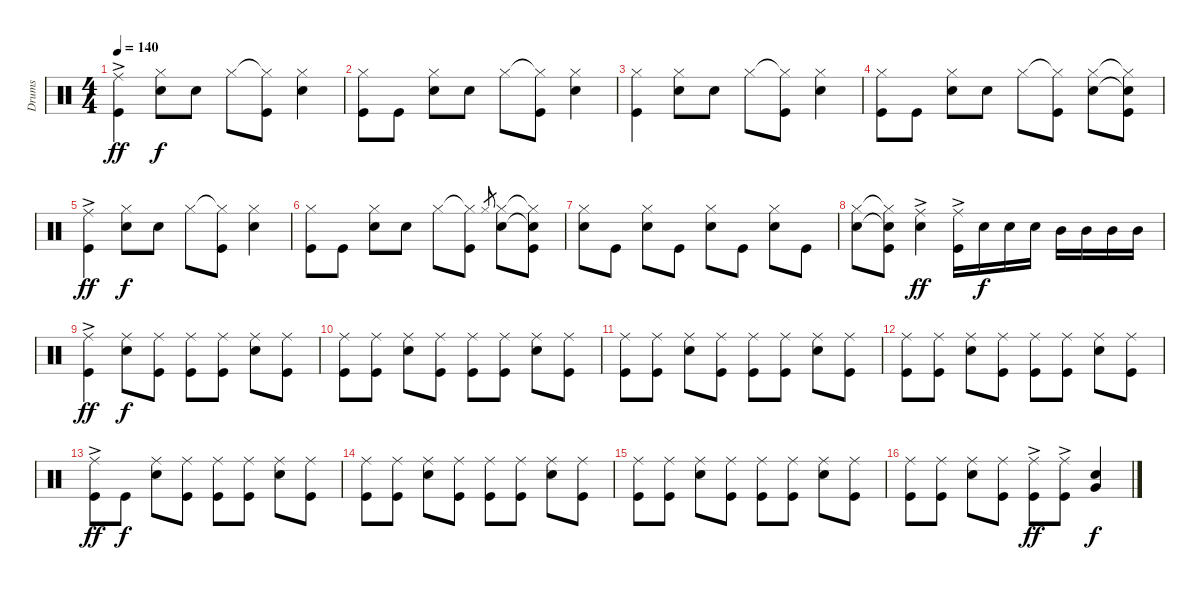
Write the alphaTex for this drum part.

\track ("Drums" "Drums") {instrument percussion}
\staff {score}
\articulation defaults
\ts (4 4)
\tempo 140
\clef neutral
\ks c
("Ride (middle)" "Kick (hit)"{ac}).4{dy ff} ("Hi-Hat (closed)" "Snare (hit) 2").8{dy f} "Snare (hit) 2".8 "Hi-Hat (closed)".8 ("Hi-Hat (closed)"{t} "Kick (hit)").8 ("Hi-Hat (closed)" "Snare (hit) 2").4 |
("Kick (hit)" "Hi-Hat (closed)").8 "Kick (hit)".8 ("Snare (hit) 2" "Hi-Hat (closed)").8 "Snare (hit) 2".8 "Hi-Hat (closed)".8 ("Hi-Hat (closed)"{t} "Kick (hit)").8 ("Snare (hit) 2" "Hi-Hat (closed)").4 |
("Kick (hit)" "Hi-Hat (closed)").4 ("Snare (hit) 2" "Hi-Hat (closed)").8 "Snare (hit) 2".8 "Hi-Hat (closed)".8 ("Hi-Hat (closed)"{t} "Kick (hit)").8 ("Snare (hit) 2" "Hi-Hat (closed)").4 |
("Kick (hit)" "Hi-Hat (closed)").8 "Kick (hit)".8 ("Snare (hit) 2" "Hi-Hat (closed)").8 "Snare (hit) 2".8 "Hi-Hat (closed)".8 ("Hi-Hat (closed)"{t} "Kick (hit)").8 ("Snare (hit) 2" "Hi-Hat (closed)").8 ("Snare (hit) 2"{t} "Hi-Hat (closed)"{t} "Kick (hit)").8 |
("Ride (middle)" "Kick (hit)"{ac}).4{dy ff} ("Hi-Hat (closed)" "Snare (hit) 2").8{dy f} "Snare (hit) 2".8 "Hi-Hat (closed)".8 ("Hi-Hat (closed)"{t} "Kick (hit)").8 ("Hi-Hat (closed)" "Snare (hit) 2").4 |
("Kick (hit)" "Hi-Hat (closed)").8 "Kick (hit)".8 ("Snare (hit) 2" "Hi-Hat (closed)").8 "Snare (hit) 2".8 "Hi-Hat (closed)".8 ("Hi-Hat (closed)"{t} "Kick (hit)").8 "Hi-Hat (closed)".8{gr} ("Snare (hit) 2" "Hi-Hat (closed)").8 ("Snare (hit) 2"{t} "Hi-Hat (closed)"{t} "Kick (hit)").8 |
("Snare (hit) 2" "Hi-Hat (closed)").8 "Kick (hit)".8 ("Snare (hit) 2" "Hi-Hat (closed)").8 "Kick (hit)".8 ("Snare (hit) 2" "Hi-Hat (closed)").8 "Kick (hit)".8 ("Snare (hit) 2" "Hi-Hat (closed)").8 "Kick (hit)".8 |
("Snare (hit) 2" "Hi-Hat (closed)").8 ("Snare (hit) 2"{t} "Hi-Hat (closed)"{t} "Kick (hit)").8 ("Ride (middle)" "Snare (hit) 2"{ac}).4{dy ff} ("Ride (middle)" "Kick (hit)"{ac}).16 "Snare (hit) 2".16{dy f} "Snare (hit) 2".16 "Snare (hit) 2".16 "Mid Tom (hit)".16 "Mid Tom (hit)".16 "Mid Tom (hit)".16 "Mid Tom (hit)".16 |
("Ride (middle)" "Kick (hit)"{ac}).4{dy ff} ("Ride (middle)" "Snare (hit) 2").8{dy f} ("Ride (middle)" "Kick (hit)").8 ("Ride (middle)" "Kick (hit)").8 ("Ride (middle)" "Kick (hit)").8 ("Ride (middle)" "Snare (hit) 2").8 ("Ride (middle)" "Kick (hit)").8 |
("Ride (middle)" "Kick (hit)").8 ("Ride (middle)" "Kick (hit)").8 ("Ride (middle)" "Snare (hit) 2").8 ("Ride (middle)" "Kick (hit)").8 ("Ride (middle)" "Kick (hit)").8 ("Ride (middle)" "Kick (hit)").8 ("Ride (middle)" "Snare (hit) 2").8 ("Ride (middle)" "Kick (hit)").8 |
("Ride (middle)" "Kick (hit)").8 ("Ride (middle)" "Kick (hit)").8 ("Ride (middle)" "Snare (hit) 2").8 ("Ride (middle)" "Kick (hit)").8 ("Ride (middle)" "Kick (hit)").8 ("Ride (middle)" "Kick (hit)").8 ("Ride (middle)" "Snare (hit) 2").8 ("Ride (middle)" "Kick (hit)").8 |
("Ride (middle)" "Kick (hit)").8 ("Ride (middle)" "Kick (hit)").8 ("Ride (middle)" "Snare (hit) 2").8 ("Ride (middle)" "Kick (hit)").8 ("Ride (middle)" "Kick (hit)").8 ("Ride (middle)" "Kick (hit)").8 ("Ride (middle)" "Snare (hit) 2").8 ("Ride (middle)" "Kick (hit)").8 |
("Ride (middle)" "Kick (hit)"{ac}).8{dy ff} "Kick (hit)".8{dy f} ("Ride (middle)" "Snare (hit) 2").8 ("Ride (middle)" "Kick (hit)").8 ("Ride (middle)" "Kick (hit)").8 ("Ride (middle)" "Kick (hit)").8 ("Ride (middle)" "Snare (hit) 2").8 ("Ride (middle)" "Kick (hit)").8 |
("Ride (middle)" "Kick (hit)").8 ("Ride (middle)" "Kick (hit)").8 ("Ride (middle)" "Snare (hit) 2").8 ("Ride (middle)" "Kick (hit)").8 ("Ride (middle)" "Kick (hit)").8 ("Ride (middle)" "Kick (hit)").8 ("Ride (middle)" "Snare (hit) 2").8 ("Ride (middle)" "Kick (hit)").8 |
("Ride (middle)" "Kick (hit)").8 ("Ride (middle)" "Kick (hit)").8 ("Ride (middle)" "Snare (hit) 2").8 ("Ride (middle)" "Kick (hit)").8 ("Ride (middle)" "Kick (hit)").8 ("Ride (middle)" "Kick (hit)").8 ("Ride (middle)" "Snare (hit) 2").8 ("Ride (middle)" "Kick (hit)").8 |
("Ride (middle)" "Kick (hit)").8 ("Ride (middle)" "Kick (hit)").8 ("Ride (middle)" "Snare (hit) 2").8 ("Ride (middle)" "Kick (hit)").8 ("Ride (middle)"{ac} "Kick (hit)").8{dy ff} ("Ride (middle)"{ac} "Kick (hit)").8 ("Very Low Tom (hit)" "Snare (hit) 2").4{dy f}
